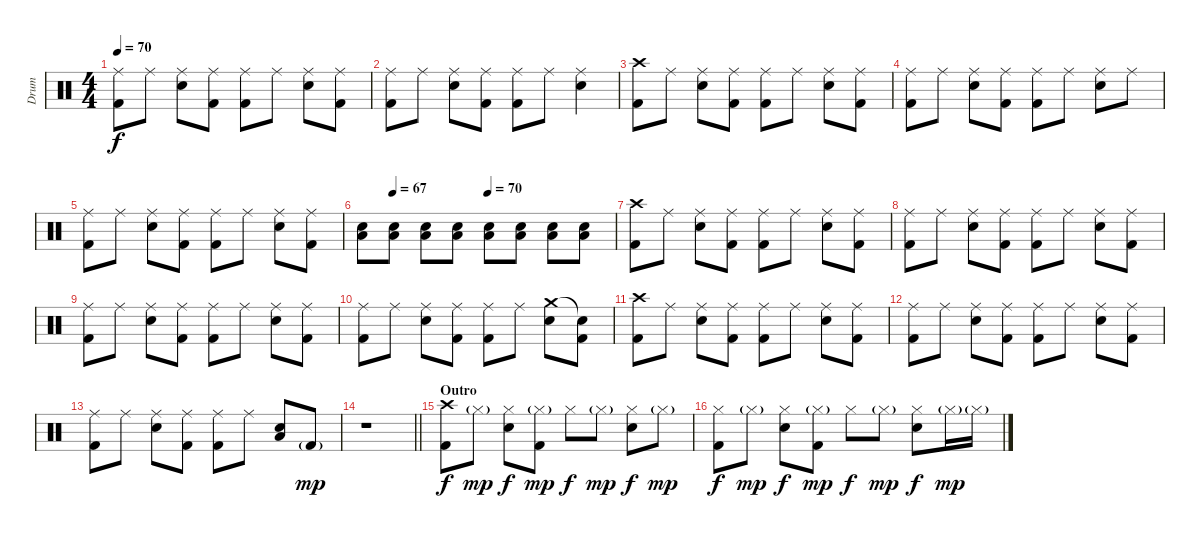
\track ("Drum" "Drum") {instrument percussion}
\staff {score}
\articulation defaults
\ts (4 4)
\tempo 70
\clef neutral
\ks c
("Ride (middle)" "Kick (hit) 2").8{dy f} "Ride (middle)".8 ("Ride (middle)" "Snare (hit) 2").8 ("Ride (middle)" "Kick (hit) 2").8 ("Ride (middle)" "Kick (hit) 2").8 "Ride (middle)".8 ("Ride (middle)" "Snare (hit) 2").8 ("Ride (middle)" "Kick (hit) 2").8 |
("Ride (middle)" "Kick (hit) 2").8 "Ride (middle)".8 ("Ride (middle)" "Snare (hit) 2").8 ("Ride (middle)" "Kick (hit) 2").8 ("Ride (middle)" "Kick (hit) 2").8 "Ride (middle)".8 ("Ride (middle)" "Snare (hit) 2").4 |
("Crash high (hit)" "Kick (hit) 2").8 "Ride (middle)".8 ("Ride (middle)" "Snare (hit) 2").8 ("Ride (middle)" "Kick (hit) 2").8 ("Ride (middle)" "Kick (hit) 2").8 "Ride (middle)".8 ("Ride (middle)" "Snare (hit) 2").8 ("Ride (middle)" "Kick (hit) 2").8 |
("Ride (middle)" "Kick (hit) 2").8 "Ride (middle)".8 ("Ride (middle)" "Snare (hit) 2").8 ("Ride (middle)" "Kick (hit) 2").8 ("Ride (middle)" "Kick (hit) 2").8 "Ride (middle)".8 ("Ride (middle)" "Snare (hit) 2").8 "Ride (middle)".8 |
("Ride (middle)" "Kick (hit) 2").8 "Ride (middle)".8 ("Ride (middle)" "Snare (hit) 2").8 ("Ride (middle)" "Kick (hit) 2").8 ("Ride (middle)" "Kick (hit) 2").8 "Ride (middle)".8 ("Ride (middle)" "Snare (hit) 2").8 ("Ride (middle)" "Kick (hit) 2").8 |
\tempo (67 0.125)
\tempo (70 0.5)
("Low Floor Tom (hit)" "Snare (hit) 2").8 ("Low Floor Tom (hit)" "Snare (hit) 2").8 ("Low Floor Tom (hit)" "Snare (hit) 2").8 ("Low Floor Tom (hit)" "Snare (hit) 2").8 ("Low Floor Tom (hit)" "Snare (hit) 2").8 ("Low Floor Tom (hit)" "Snare (hit) 2").8 ("Low Floor Tom (hit)" "Snare (hit) 2").8 ("Low Floor Tom (hit)" "Snare (hit) 2").8 |
("Crash high (hit)" "Kick (hit) 2").8 "Ride (middle)".8 ("Ride (middle)" "Snare (hit) 2").8 ("Ride (middle)" "Kick (hit) 2").8 ("Ride (middle)" "Kick (hit) 2").8 "Ride (middle)".8 ("Ride (middle)" "Snare (hit) 2").8 ("Ride (middle)" "Kick (hit) 2").8 |
("Ride (middle)" "Kick (hit) 2").8 "Ride (middle)".8 ("Ride (middle)" "Snare (hit) 2").8 ("Ride (middle)" "Kick (hit) 2").8 ("Ride (middle)" "Kick (hit) 2").8 "Ride (middle)".8 ("Ride (middle)" "Snare (hit) 2").8 ("Ride (middle)" "Kick (hit) 2").8 |
("Ride (middle)" "Kick (hit) 2").8 "Ride (middle)".8 ("Ride (middle)" "Snare (hit) 2").8 ("Ride (middle)" "Kick (hit) 2").8 ("Ride (middle)" "Kick (hit) 2").8 "Ride (middle)".8 ("Ride (middle)" "Snare (hit) 2").8 ("Ride (middle)" "Kick (hit) 2").8 |
("Ride (middle)" "Kick (hit) 2").8 "Ride (middle)".8 ("Ride (middle)" "Snare (hit) 2").8 ("Ride (middle)" "Kick (hit) 2").8 ("Ride (middle)" "Kick (hit) 2").8 "Ride (middle)".8 ("Crash medium (hit)" "Snare (hit) 2").8 ("Snare (hit)"{t} "Kick (hit) 2").8 |
("Crash high (hit)" "Kick (hit) 2").8 "Ride (middle)".8 ("Ride (middle)" "Snare (hit) 2").8 ("Ride (middle)" "Kick (hit) 2").8 ("Ride (middle)" "Kick (hit) 2").8 "Ride (middle)".8 ("Ride (middle)" "Snare (hit) 2").8 ("Ride (middle)" "Kick (hit) 2").8 |
("Ride (middle)" "Kick (hit) 2").8 "Ride (middle)".8 ("Ride (middle)" "Snare (hit) 2").8 ("Ride (middle)" "Kick (hit) 2").8 ("Ride (middle)" "Kick (hit) 2").8 "Ride (middle)".8 ("Ride (middle)" "Snare (hit) 2").8 ("Ride (middle)" "Kick (hit) 2").8 |
("Ride (middle)" "Kick (hit) 2").8 "Ride (middle)".8 ("Ride (middle)" "Snare (hit) 2").8 ("Ride (middle)" "Kick (hit) 2").8 ("Ride (middle)" "Kick (hit) 2").8 "Ride (middle)".8 ("Low Floor Tom (hit)" "Snare (hit) 2").8 "Kick (hit) 2"{g}.8{dy mp} |
\barLineRight lightlight
r.1 |
\section ("" "Outro")
("Crash high (hit)" "Kick (hit) 2").8{dy f} "Hi-Hat (closed)"{g}.8{dy mp} ("Hi-Hat (closed)" "Snare (hit) 2").8{dy f} ("Hi-Hat (closed)"{g} "Kick (hit) 2").8{dy mp} "Hi-Hat (closed)".8{dy f} "Hi-Hat (closed)"{g}.8{dy mp} ("Hi-Hat (closed)" "Snare (hit) 2").8{dy f} "Hi-Hat (closed)"{g}.8{dy mp} |
("Hi-Hat (closed)" "Kick (hit) 2").8{dy f} "Hi-Hat (closed)"{g}.8{dy mp} ("Hi-Hat (closed)" "Snare (hit) 2").8{dy f} ("Hi-Hat (closed)"{g} "Kick (hit) 2").8{dy mp} "Hi-Hat (closed)".8{dy f} "Hi-Hat (closed)"{g}.8{dy mp} ("Hi-Hat (closed)" "Snare (hit) 2").8{dy f} "Hi-Hat (closed)"{g}.16{dy mp} "Hi-Hat (closed)"{g}.16
